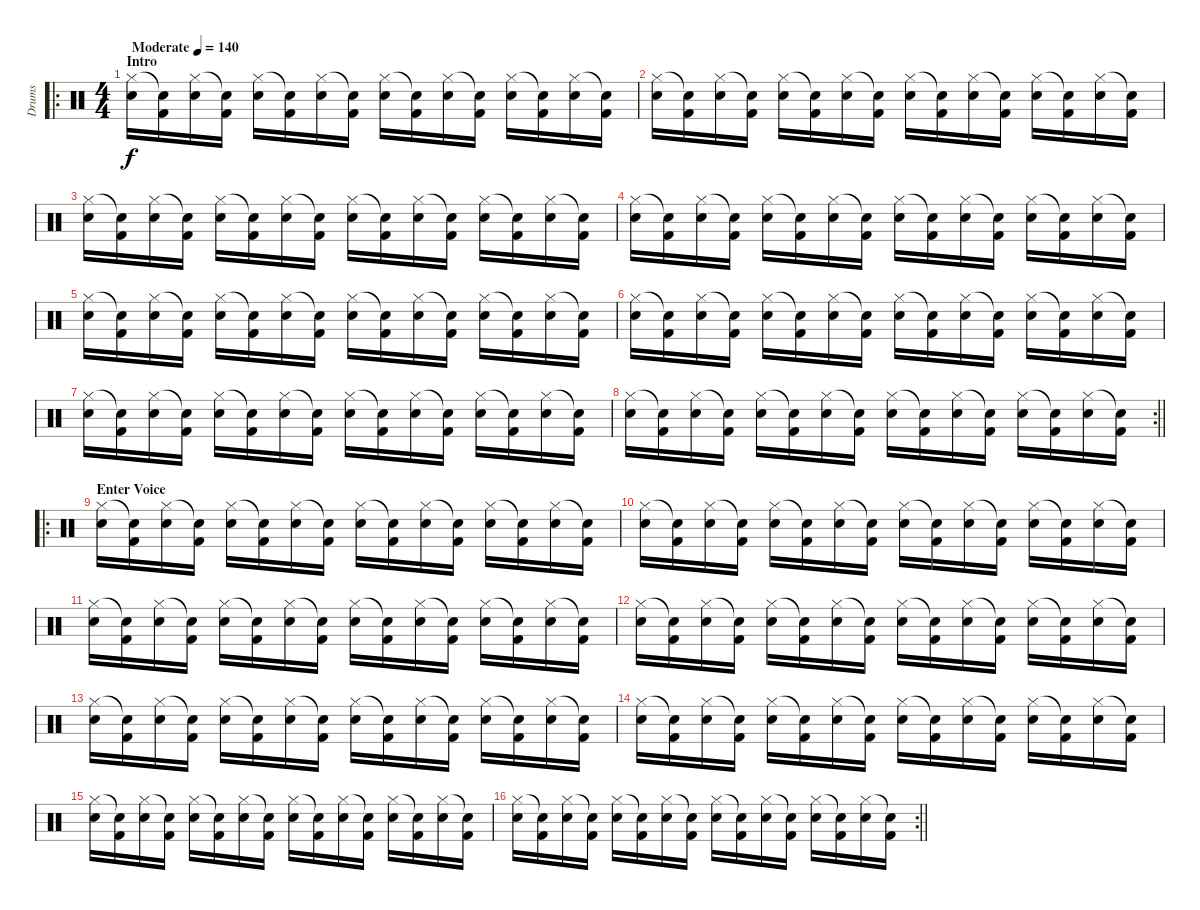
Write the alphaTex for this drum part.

\track ("Drums" "Drums") {instrument percussion}
\staff {score}
\articulation defaults
\ro
\ts (4 4)
\section ("" "Intro")
\tempo (140 "Moderate")
\clef neutral
\ks c
("Snare (hit) 2" "Hi-Hat (closed)").16{dy f} ("Kick (hit) 2" "Snare (hit)"{t}).16 ("Snare (hit) 2" "Hi-Hat (closed)").16 ("Kick (hit) 2" "Snare (hit)"{t}).16 ("Snare (hit) 2" "Hi-Hat (closed)").16 ("Kick (hit) 2" "Snare (hit)"{t}).16 ("Snare (hit) 2" "Hi-Hat (closed)").16 ("Kick (hit) 2" "Snare (hit)"{t}).16 ("Snare (hit) 2" "Hi-Hat (closed)").16 ("Kick (hit) 2" "Snare (hit)"{t}).16 ("Snare (hit) 2" "Hi-Hat (closed)").16 ("Kick (hit) 2" "Snare (hit)"{t}).16 ("Snare (hit) 2" "Hi-Hat (closed)").16 ("Kick (hit) 2" "Snare (hit)"{t}).16 ("Snare (hit) 2" "Hi-Hat (closed)").16 ("Kick (hit) 2" "Snare (hit)"{t}).16 |
("Snare (hit) 2" "Hi-Hat (closed)").16 ("Kick (hit) 2" "Snare (hit)"{t}).16 ("Snare (hit) 2" "Hi-Hat (closed)").16 ("Kick (hit) 2" "Snare (hit)"{t}).16 ("Snare (hit) 2" "Hi-Hat (closed)").16 ("Kick (hit) 2" "Snare (hit)"{t}).16 ("Snare (hit) 2" "Hi-Hat (closed)").16 ("Kick (hit) 2" "Snare (hit)"{t}).16 ("Snare (hit) 2" "Hi-Hat (closed)").16 ("Kick (hit) 2" "Snare (hit)"{t}).16 ("Snare (hit) 2" "Hi-Hat (closed)").16 ("Kick (hit) 2" "Snare (hit)"{t}).16 ("Snare (hit) 2" "Hi-Hat (closed)").16 ("Kick (hit) 2" "Snare (hit)"{t}).16 ("Snare (hit) 2" "Hi-Hat (closed)").16 ("Kick (hit) 2" "Snare (hit)"{t}).16 |
("Snare (hit) 2" "Hi-Hat (closed)").16 ("Kick (hit) 2" "Snare (hit)"{t}).16 ("Snare (hit) 2" "Hi-Hat (closed)").16 ("Kick (hit) 2" "Snare (hit)"{t}).16 ("Snare (hit) 2" "Hi-Hat (closed)").16 ("Kick (hit) 2" "Snare (hit)"{t}).16 ("Snare (hit) 2" "Hi-Hat (closed)").16 ("Kick (hit) 2" "Snare (hit)"{t}).16 ("Snare (hit) 2" "Hi-Hat (closed)").16 ("Kick (hit) 2" "Snare (hit)"{t}).16 ("Snare (hit) 2" "Hi-Hat (closed)").16 ("Kick (hit) 2" "Snare (hit)"{t}).16 ("Snare (hit) 2" "Hi-Hat (closed)").16 ("Kick (hit) 2" "Snare (hit)"{t}).16 ("Snare (hit) 2" "Hi-Hat (closed)").16 ("Kick (hit) 2" "Snare (hit)"{t}).16 |
("Snare (hit) 2" "Hi-Hat (closed)").16 ("Kick (hit) 2" "Snare (hit)"{t}).16 ("Snare (hit) 2" "Hi-Hat (closed)").16 ("Kick (hit) 2" "Snare (hit)"{t}).16 ("Snare (hit) 2" "Hi-Hat (closed)").16 ("Kick (hit) 2" "Snare (hit)"{t}).16 ("Snare (hit) 2" "Hi-Hat (closed)").16 ("Kick (hit) 2" "Snare (hit)"{t}).16 ("Snare (hit) 2" "Hi-Hat (closed)").16 ("Kick (hit) 2" "Snare (hit)"{t}).16 ("Snare (hit) 2" "Hi-Hat (closed)").16 ("Kick (hit) 2" "Snare (hit)"{t}).16 ("Snare (hit) 2" "Hi-Hat (closed)").16 ("Kick (hit) 2" "Snare (hit)"{t}).16 ("Snare (hit) 2" "Hi-Hat (closed)").16 ("Kick (hit) 2" "Snare (hit)"{t}).16 |
("Snare (hit) 2" "Hi-Hat (closed)").16 ("Kick (hit) 2" "Snare (hit)"{t}).16 ("Snare (hit) 2" "Hi-Hat (closed)").16 ("Kick (hit) 2" "Snare (hit)"{t}).16 ("Snare (hit) 2" "Hi-Hat (closed)").16 ("Kick (hit) 2" "Snare (hit)"{t}).16 ("Snare (hit) 2" "Hi-Hat (closed)").16 ("Kick (hit) 2" "Snare (hit)"{t}).16 ("Snare (hit) 2" "Hi-Hat (closed)").16 ("Kick (hit) 2" "Snare (hit)"{t}).16 ("Snare (hit) 2" "Hi-Hat (closed)").16 ("Kick (hit) 2" "Snare (hit)"{t}).16 ("Snare (hit) 2" "Hi-Hat (closed)").16 ("Kick (hit) 2" "Snare (hit)"{t}).16 ("Snare (hit) 2" "Hi-Hat (closed)").16 ("Kick (hit) 2" "Snare (hit)"{t}).16 |
("Snare (hit) 2" "Hi-Hat (closed)").16 ("Kick (hit) 2" "Snare (hit)"{t}).16 ("Snare (hit) 2" "Hi-Hat (closed)").16 ("Kick (hit) 2" "Snare (hit)"{t}).16 ("Snare (hit) 2" "Hi-Hat (closed)").16 ("Kick (hit) 2" "Snare (hit)"{t}).16 ("Snare (hit) 2" "Hi-Hat (closed)").16 ("Kick (hit) 2" "Snare (hit)"{t}).16 ("Snare (hit) 2" "Hi-Hat (closed)").16 ("Kick (hit) 2" "Snare (hit)"{t}).16 ("Snare (hit) 2" "Hi-Hat (closed)").16 ("Kick (hit) 2" "Snare (hit)"{t}).16 ("Snare (hit) 2" "Hi-Hat (closed)").16 ("Kick (hit) 2" "Snare (hit)"{t}).16 ("Snare (hit) 2" "Hi-Hat (closed)").16 ("Kick (hit) 2" "Snare (hit)"{t}).16 |
("Snare (hit) 2" "Hi-Hat (closed)").16 ("Kick (hit) 2" "Snare (hit)"{t}).16 ("Snare (hit) 2" "Hi-Hat (closed)").16 ("Kick (hit) 2" "Snare (hit)"{t}).16 ("Snare (hit) 2" "Hi-Hat (closed)").16 ("Kick (hit) 2" "Snare (hit)"{t}).16 ("Snare (hit) 2" "Hi-Hat (closed)").16 ("Kick (hit) 2" "Snare (hit)"{t}).16 ("Snare (hit) 2" "Hi-Hat (closed)").16 ("Kick (hit) 2" "Snare (hit)"{t}).16 ("Snare (hit) 2" "Hi-Hat (closed)").16 ("Kick (hit) 2" "Snare (hit)"{t}).16 ("Snare (hit) 2" "Hi-Hat (closed)").16 ("Kick (hit) 2" "Snare (hit)"{t}).16 ("Snare (hit) 2" "Hi-Hat (closed)").16 ("Kick (hit) 2" "Snare (hit)"{t}).16 |
\rc 2
\barLineRight lightlight
("Snare (hit) 2" "Hi-Hat (closed)").16 ("Kick (hit) 2" "Snare (hit)"{t}).16 ("Snare (hit) 2" "Hi-Hat (closed)").16 ("Kick (hit) 2" "Snare (hit)"{t}).16 ("Snare (hit) 2" "Hi-Hat (closed)").16 ("Kick (hit) 2" "Snare (hit)"{t}).16 ("Snare (hit) 2" "Hi-Hat (closed)").16 ("Kick (hit) 2" "Snare (hit)"{t}).16 ("Snare (hit) 2" "Hi-Hat (closed)").16 ("Kick (hit) 2" "Snare (hit)"{t}).16 ("Snare (hit) 2" "Hi-Hat (closed)").16 ("Kick (hit) 2" "Snare (hit)"{t}).16 ("Snare (hit) 2" "Hi-Hat (closed)").16 ("Kick (hit) 2" "Snare (hit)"{t}).16 ("Snare (hit) 2" "Hi-Hat (closed)").16 ("Kick (hit) 2" "Snare (hit)"{t}).16 |
\ro
\section ("" "Enter Voice")
("Snare (hit) 2" "Hi-Hat (closed)").16 ("Kick (hit) 2" "Snare (hit)"{t}).16 ("Snare (hit) 2" "Hi-Hat (closed)").16 ("Kick (hit) 2" "Snare (hit)"{t}).16 ("Snare (hit) 2" "Hi-Hat (closed)").16 ("Kick (hit) 2" "Snare (hit)"{t}).16 ("Snare (hit) 2" "Hi-Hat (closed)").16 ("Kick (hit) 2" "Snare (hit)"{t}).16 ("Snare (hit) 2" "Hi-Hat (closed)").16 ("Kick (hit) 2" "Snare (hit)"{t}).16 ("Snare (hit) 2" "Hi-Hat (closed)").16 ("Kick (hit) 2" "Snare (hit)"{t}).16 ("Snare (hit) 2" "Hi-Hat (closed)").16 ("Kick (hit) 2" "Snare (hit)"{t}).16 ("Snare (hit) 2" "Hi-Hat (closed)").16 ("Kick (hit) 2" "Snare (hit)"{t}).16 |
("Snare (hit) 2" "Hi-Hat (closed)").16 ("Kick (hit) 2" "Snare (hit)"{t}).16 ("Snare (hit) 2" "Hi-Hat (closed)").16 ("Kick (hit) 2" "Snare (hit)"{t}).16 ("Snare (hit) 2" "Hi-Hat (closed)").16 ("Kick (hit) 2" "Snare (hit)"{t}).16 ("Snare (hit) 2" "Hi-Hat (closed)").16 ("Kick (hit) 2" "Snare (hit)"{t}).16 ("Snare (hit) 2" "Hi-Hat (closed)").16 ("Kick (hit) 2" "Snare (hit)"{t}).16 ("Snare (hit) 2" "Hi-Hat (closed)").16 ("Kick (hit) 2" "Snare (hit)"{t}).16 ("Snare (hit) 2" "Hi-Hat (closed)").16 ("Kick (hit) 2" "Snare (hit)"{t}).16 ("Snare (hit) 2" "Hi-Hat (closed)").16 ("Kick (hit) 2" "Snare (hit)"{t}).16 |
("Snare (hit) 2" "Hi-Hat (closed)").16 ("Kick (hit) 2" "Snare (hit)"{t}).16 ("Snare (hit) 2" "Hi-Hat (closed)").16 ("Kick (hit) 2" "Snare (hit)"{t}).16 ("Snare (hit) 2" "Hi-Hat (closed)").16 ("Kick (hit) 2" "Snare (hit)"{t}).16 ("Snare (hit) 2" "Hi-Hat (closed)").16 ("Kick (hit) 2" "Snare (hit)"{t}).16 ("Snare (hit) 2" "Hi-Hat (closed)").16 ("Kick (hit) 2" "Snare (hit)"{t}).16 ("Snare (hit) 2" "Hi-Hat (closed)").16 ("Kick (hit) 2" "Snare (hit)"{t}).16 ("Snare (hit) 2" "Hi-Hat (closed)").16 ("Kick (hit) 2" "Snare (hit)"{t}).16 ("Snare (hit) 2" "Hi-Hat (closed)").16 ("Kick (hit) 2" "Snare (hit)"{t}).16 |
("Snare (hit) 2" "Hi-Hat (closed)").16 ("Kick (hit) 2" "Snare (hit)"{t}).16 ("Snare (hit) 2" "Hi-Hat (closed)").16 ("Kick (hit) 2" "Snare (hit)"{t}).16 ("Snare (hit) 2" "Hi-Hat (closed)").16 ("Kick (hit) 2" "Snare (hit)"{t}).16 ("Snare (hit) 2" "Hi-Hat (closed)").16 ("Kick (hit) 2" "Snare (hit)"{t}).16 ("Snare (hit) 2" "Hi-Hat (closed)").16 ("Kick (hit) 2" "Snare (hit)"{t}).16 ("Snare (hit) 2" "Hi-Hat (closed)").16 ("Kick (hit) 2" "Snare (hit)"{t}).16 ("Snare (hit) 2" "Hi-Hat (closed)").16 ("Kick (hit) 2" "Snare (hit)"{t}).16 ("Snare (hit) 2" "Hi-Hat (closed)").16 ("Kick (hit) 2" "Snare (hit)"{t}).16 |
("Snare (hit) 2" "Hi-Hat (closed)").16 ("Kick (hit) 2" "Snare (hit)"{t}).16 ("Snare (hit) 2" "Hi-Hat (closed)").16 ("Kick (hit) 2" "Snare (hit)"{t}).16 ("Snare (hit) 2" "Hi-Hat (closed)").16 ("Kick (hit) 2" "Snare (hit)"{t}).16 ("Snare (hit) 2" "Hi-Hat (closed)").16 ("Kick (hit) 2" "Snare (hit)"{t}).16 ("Snare (hit) 2" "Hi-Hat (closed)").16 ("Kick (hit) 2" "Snare (hit)"{t}).16 ("Snare (hit) 2" "Hi-Hat (closed)").16 ("Kick (hit) 2" "Snare (hit)"{t}).16 ("Snare (hit) 2" "Hi-Hat (closed)").16 ("Kick (hit) 2" "Snare (hit)"{t}).16 ("Snare (hit) 2" "Hi-Hat (closed)").16 ("Kick (hit) 2" "Snare (hit)"{t}).16 |
("Snare (hit) 2" "Hi-Hat (closed)").16 ("Kick (hit) 2" "Snare (hit)"{t}).16 ("Snare (hit) 2" "Hi-Hat (closed)").16 ("Kick (hit) 2" "Snare (hit)"{t}).16 ("Snare (hit) 2" "Hi-Hat (closed)").16 ("Kick (hit) 2" "Snare (hit)"{t}).16 ("Snare (hit) 2" "Hi-Hat (closed)").16 ("Kick (hit) 2" "Snare (hit)"{t}).16 ("Snare (hit) 2" "Hi-Hat (closed)").16 ("Kick (hit) 2" "Snare (hit)"{t}).16 ("Snare (hit) 2" "Hi-Hat (closed)").16 ("Kick (hit) 2" "Snare (hit)"{t}).16 ("Snare (hit) 2" "Hi-Hat (closed)").16 ("Kick (hit) 2" "Snare (hit)"{t}).16 ("Snare (hit) 2" "Hi-Hat (closed)").16 ("Kick (hit) 2" "Snare (hit)"{t}).16 |
("Snare (hit) 2" "Hi-Hat (closed)").16 ("Kick (hit) 2" "Snare (hit)"{t}).16 ("Snare (hit) 2" "Hi-Hat (closed)").16 ("Kick (hit) 2" "Snare (hit)"{t}).16 ("Snare (hit) 2" "Hi-Hat (closed)").16 ("Kick (hit) 2" "Snare (hit)"{t}).16 ("Snare (hit) 2" "Hi-Hat (closed)").16 ("Kick (hit) 2" "Snare (hit)"{t}).16 ("Snare (hit) 2" "Hi-Hat (closed)").16 ("Kick (hit) 2" "Snare (hit)"{t}).16 ("Snare (hit) 2" "Hi-Hat (closed)").16 ("Kick (hit) 2" "Snare (hit)"{t}).16 ("Snare (hit) 2" "Hi-Hat (closed)").16 ("Kick (hit) 2" "Snare (hit)"{t}).16 ("Snare (hit) 2" "Hi-Hat (closed)").16 ("Kick (hit) 2" "Snare (hit)"{t}).16 |
\rc 2
\barLineRight lightlight
("Snare (hit) 2" "Hi-Hat (closed)").16 ("Kick (hit) 2" "Snare (hit)"{t}).16 ("Snare (hit) 2" "Hi-Hat (closed)").16 ("Kick (hit) 2" "Snare (hit)"{t}).16 ("Snare (hit) 2" "Hi-Hat (closed)").16 ("Kick (hit) 2" "Snare (hit)"{t}).16 ("Snare (hit) 2" "Hi-Hat (closed)").16 ("Kick (hit) 2" "Snare (hit)"{t}).16 ("Snare (hit) 2" "Hi-Hat (closed)").16 ("Kick (hit) 2" "Snare (hit)"{t}).16 ("Snare (hit) 2" "Hi-Hat (closed)").16 ("Kick (hit) 2" "Snare (hit)"{t}).16 ("Snare (hit) 2" "Hi-Hat (closed)").16 ("Kick (hit) 2" "Snare (hit)"{t}).16 ("Snare (hit) 2" "Hi-Hat (closed)").16 ("Kick (hit) 2" "Snare (hit)"{t}).16
